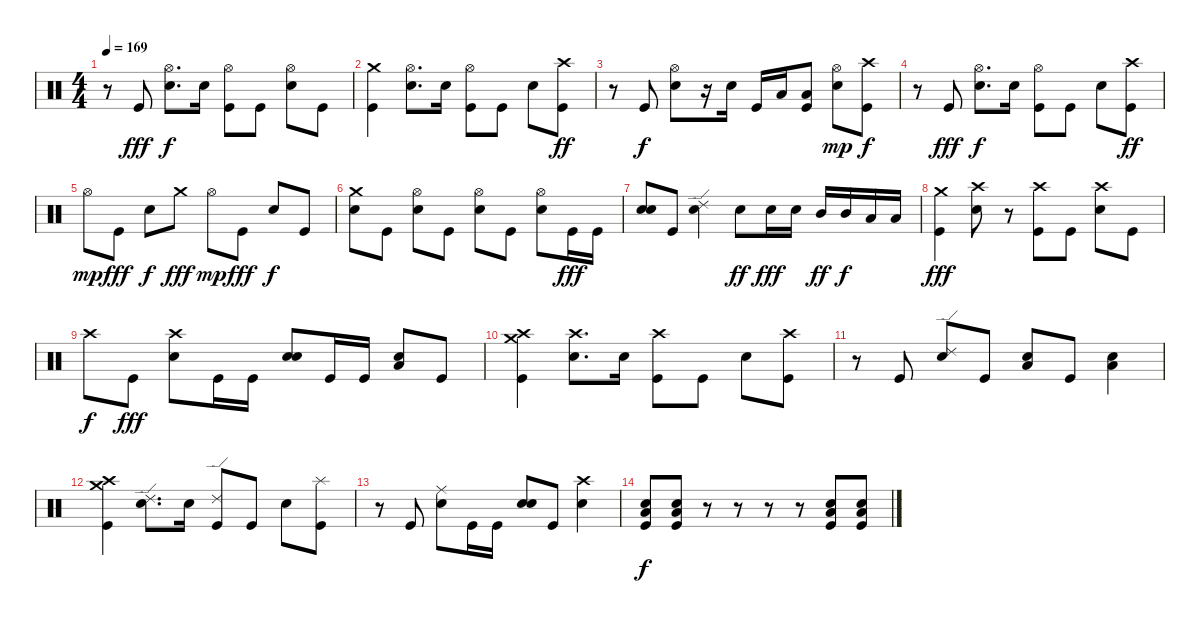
\track "" {instrument percussion}
\staff {score}
\articulation defaults
\ts (4 4)
\tempo 169
\clef neutral
\ks c
r.8{dy ff} "Kick (hit)".8{dy fff} ("Hi-Hat (open)" "Snare (hit) 2").8{d dy f} "Snare (hit) 2".16 ("Hi-Hat (open)" "Kick (hit)").8 "Kick (hit)".8 ("Hi-Hat (open)" "Snare (hit) 2").8 "Kick (hit)".8 |
("Crash medium (hit)" "Kick (hit)").4 ("Hi-Hat (open)" "Snare (hit) 2").8{d} "Snare (hit) 2".16 ("Hi-Hat (open)" "Kick (hit)").8 "Kick (hit)".8 "Snare (hit) 2".8 ("Crash high (hit)" "Kick (hit)").8{dy ff} |
r.8 "Kick (hit)".8{dy f} ("Snare (hit) 2" "Hi-Hat (open)").8 r.16 "Snare (hit) 2".16 "Kick (hit)".16 "Low Tom (hit)".16 ("Low Tom (hit)" "Kick (hit)").8 ("Hi-Hat (open)" "Snare (hit) 2").8{dy mp} ("Crash high (hit)" "Kick (hit)").8{dy f} |
r.8 "Kick (hit)".8{dy fff} ("Hi-Hat (open)" "Snare (hit) 2").8{d dy f} "Snare (hit) 2".16 ("Hi-Hat (open)" "Kick (hit)").8 "Kick (hit)".8 "Snare (hit) 2".8 ("Crash high (hit)" "Kick (hit)").8{dy ff} |
"Hi-Hat (open)".8{dy mp} "Kick (hit)".8{dy fff} "Snare (hit) 2".8{dy f} "Crash medium (hit)".8{dy fff} "Hi-Hat (open)".8{dy mp} "Kick (hit)".8{dy fff} "Snare (hit) 2".8{dy f} "Kick (hit)".8 |
("Snare (hit) 2" "Crash medium (hit)").8 "Kick (hit)".8 ("Snare (hit) 2" "Hi-Hat (open)").8 "Kick (hit)".8 ("Snare (hit) 2" "Hi-Hat (open)").8 "Kick (hit)".8 ("Snare (hit) 2" "Hi-Hat (open)").8 "Kick (hit)".16{dy fff} "Kick (hit)".16 |
("Snare (hit) 2" "Electric Snare (hit)").8 "Kick (hit)".8 ("Ride (edge) 2" "Snare (hit) 2").4 "Snare (hit) 2".8{dy ff} "Snare (hit) 2".16{dy fff} "Snare (hit) 2".16 "Mid Tom (hit)".16{dy ff} "Mid Tom (hit)".16{dy f} "Low Tom (hit)".16 "Low Tom (hit)".16 |
("Crash medium (hit)" "Kick (hit)").4{dy fff} ("Crash high (hit)" "Snare (hit) 2").8 r.8 ("Crash high (hit)" "Kick (hit)").8 "Kick (hit)".8 ("Crash high (hit)" "Snare (hit) 2").8 "Kick (hit)".8 |
"Crash high (hit)".8{dy f} "Kick (hit)".8{dy fff} ("Crash high (hit)" "Snare (hit) 2").8 "Kick (hit)".16 "Kick (hit)".16 ("Electric Snare (hit)" "Snare (hit) 2").8 "Kick (hit)".16 "Kick (hit)".16 ("Low Tom (hit)" "Snare (hit) 2").8 "Kick (hit)".8 |
("Crash medium (hit)" "Kick (hit)" "Crash high (hit)").4 ("Crash high (hit)" "Snare (hit) 2").8{d} "Snare (hit) 2".16 ("Crash high (hit)" "Kick (hit)").8 "Kick (hit)".8 "Snare (hit) 2".8 ("Crash high (hit)" "Kick (hit)").8 |
r.8 "Kick (hit)".8 ("Ride (edge) 2" "Snare (hit) 2").8 "Kick (hit)".8 ("Low Tom (hit)" "Snare (hit) 2").8 "Kick (hit)".8 ("Low Tom (hit)" "Snare (hit) 2").4 |
("Crash high (hit)" "Crash medium (hit)" "Kick (hit)").4 ("Ride (edge) 2" "Snare (hit) 2").8{d} "Snare (hit) 2".16 ("Ride (edge) 2" "Kick (hit)").8 "Kick (hit)".8 "Snare (hit) 2".8 ("Splash (hit)" "Kick (hit)").8 |
r.8 "Kick (hit)".8 ("Ride (middle)" "Snare (hit) 2").8 "Kick (hit)".16 "Kick (hit)".16 ("Electric Snare (hit)" "Snare (hit) 2").8 "Kick (hit)".8 ("Crash high (hit)" "Snare (hit) 2").4 |
("Kick (hit)" "Low Tom (hit)" "Snare (hit) 2").8{dy f} ("Kick (hit)" "Low Tom (hit)" "Snare (hit) 2").8 r.8 r.8 r.8 r.8 ("Kick (hit)" "Low Tom (hit)" "Snare (hit) 2").8 ("Kick (hit)" "Low Tom (hit)" "Snare (hit) 2").8
